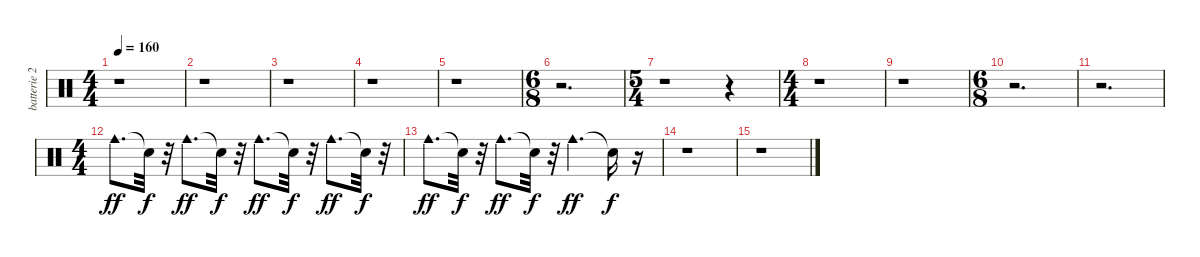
\track ("batterie 2" "batterie 2") {instrument percussion}
\staff {score}
\articulation defaults
\ts (4 4)
\tempo 160
\clef neutral
\ks c
r.1{dy f} |
r.1 |
r.1 |
r.1 |
r.1 |
\ts (6 8)
r.2{d} |
\ts (5 4)
r.1 r.4 |
\ts (4 4)
r.1 |
r.1 |
\ts (6 8)
r.2{d} |
r.2{d} |
\ts (4 4)
"Cowbell medium (hit)".8{d dy ff} "Snare (hit)"{t}.32{dy f} r.32 "Cowbell medium (hit)".8{d dy ff} "Snare (hit)"{t}.32{dy f} r.32 "Cowbell medium (hit)".8{d dy ff} "Snare (hit)"{t}.32{dy f} r.32 "Cowbell medium (hit)".8{d dy ff} "Snare (hit)"{t}.32{dy f} r.32 |
"Cowbell medium (hit)".8{d dy ff} "Snare (hit)"{t}.32{dy f} r.32 "Cowbell medium (hit)".8{d dy ff} "Snare (hit)"{t}.32{dy f} r.32 "Cowbell medium (hit)".4{d dy ff} "Snare (hit)"{t}.16{dy f} r.16 |
r.1 |
r.1
